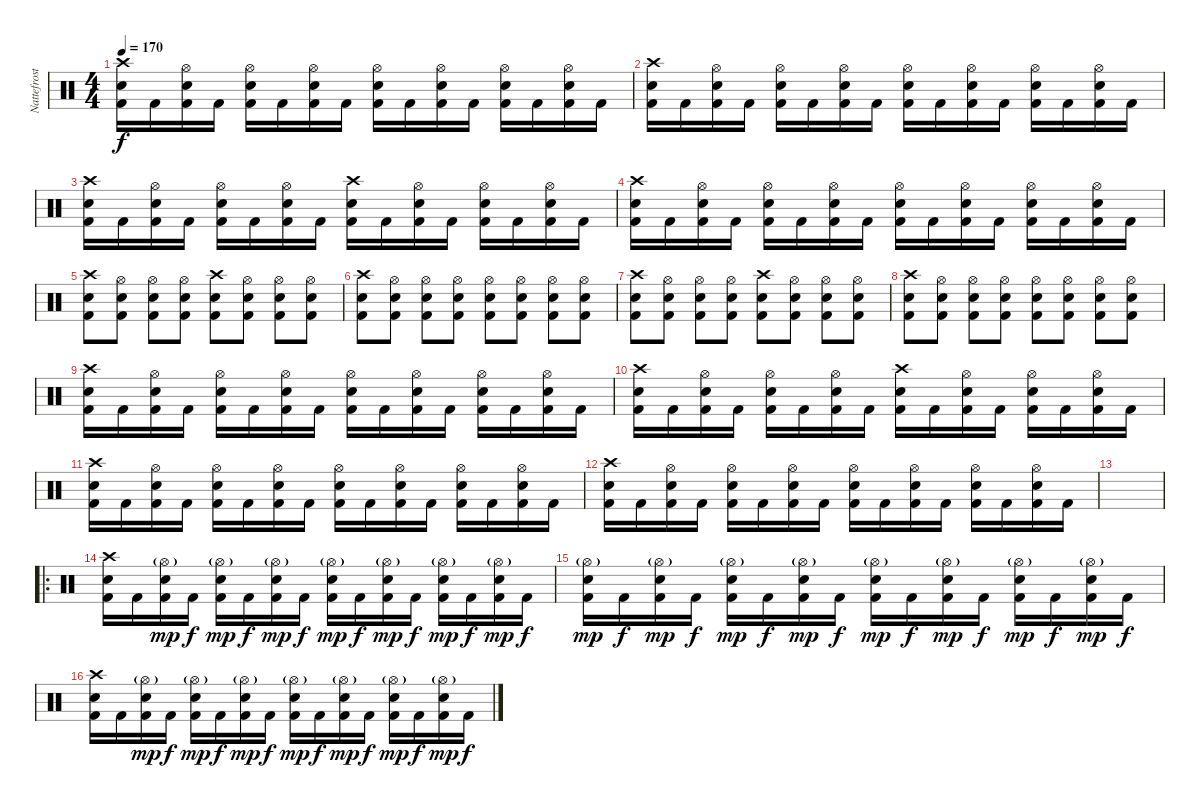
\track ("Nattefrost" "Nattefrost") {instrument percussion}
\staff {score}
\articulation defaults
\ts (4 4)
\tempo 170
\clef neutral
\ks c
("Crash high (hit)" "Snare (hit) 2" "Kick (hit) 2").16{dy f} "Kick (hit) 2".16 ("Hi-Hat (open)" "Snare (hit) 2" "Kick (hit) 2").16 "Kick (hit) 2".16 ("Hi-Hat (open)" "Snare (hit) 2" "Kick (hit) 2").16 "Kick (hit) 2".16 ("Hi-Hat (open)" "Snare (hit) 2" "Kick (hit) 2").16 "Kick (hit) 2".16 ("Hi-Hat (open)" "Snare (hit) 2" "Kick (hit) 2").16 "Kick (hit) 2".16 ("Hi-Hat (open)" "Snare (hit) 2" "Kick (hit) 2").16 "Kick (hit) 2".16 ("Hi-Hat (open)" "Snare (hit) 2" "Kick (hit) 2").16 "Kick (hit) 2".16 ("Hi-Hat (open)" "Snare (hit) 2" "Kick (hit) 2").16 "Kick (hit) 2".16 |
("Crash high (hit)" "Snare (hit) 2" "Kick (hit) 2").16 "Kick (hit) 2".16 ("Hi-Hat (open)" "Snare (hit) 2" "Kick (hit) 2").16 "Kick (hit) 2".16 ("Hi-Hat (open)" "Snare (hit) 2" "Kick (hit) 2").16 "Kick (hit) 2".16 ("Hi-Hat (open)" "Snare (hit) 2" "Kick (hit) 2").16 "Kick (hit) 2".16 ("Hi-Hat (open)" "Snare (hit) 2" "Kick (hit) 2").16 "Kick (hit) 2".16 ("Hi-Hat (open)" "Snare (hit) 2" "Kick (hit) 2").16 "Kick (hit) 2".16 ("Hi-Hat (open)" "Snare (hit) 2" "Kick (hit) 2").16 "Kick (hit) 2".16 ("Hi-Hat (open)" "Snare (hit) 2" "Kick (hit) 2").16 "Kick (hit) 2".16 |
("Crash high (hit)" "Snare (hit) 2" "Kick (hit) 2").16 "Kick (hit) 2".16 ("Hi-Hat (open)" "Snare (hit) 2" "Kick (hit) 2").16 "Kick (hit) 2".16 ("Hi-Hat (open)" "Snare (hit) 2" "Kick (hit) 2").16 "Kick (hit) 2".16 ("Hi-Hat (open)" "Snare (hit) 2" "Kick (hit) 2").16 "Kick (hit) 2".16 ("Crash high (hit)" "Snare (hit) 2" "Kick (hit) 2").16 "Kick (hit) 2".16 ("Hi-Hat (open)" "Snare (hit) 2" "Kick (hit) 2").16 "Kick (hit) 2".16 ("Hi-Hat (open)" "Snare (hit) 2" "Kick (hit) 2").16 "Kick (hit) 2".16 ("Hi-Hat (open)" "Snare (hit) 2" "Kick (hit) 2").16 "Kick (hit) 2".16 |
("Crash high (hit)" "Snare (hit) 2" "Kick (hit) 2").16 "Kick (hit) 2".16 ("Hi-Hat (open)" "Snare (hit) 2" "Kick (hit) 2").16 "Kick (hit) 2".16 ("Hi-Hat (open)" "Snare (hit) 2" "Kick (hit) 2").16 "Kick (hit) 2".16 ("Hi-Hat (open)" "Snare (hit) 2" "Kick (hit) 2").16 "Kick (hit) 2".16 ("Hi-Hat (open)" "Snare (hit) 2" "Kick (hit) 2").16 "Kick (hit) 2".16 ("Hi-Hat (open)" "Snare (hit) 2" "Kick (hit) 2").16 "Kick (hit) 2".16 ("Hi-Hat (open)" "Snare (hit) 2" "Kick (hit) 2").16 "Kick (hit) 2".16 ("Hi-Hat (open)" "Snare (hit) 2" "Kick (hit) 2").16 "Kick (hit) 2".16 |
("Crash high (hit)" "Snare (hit) 2" "Kick (hit) 2").8 ("Hi-Hat (open)" "Snare (hit) 2" "Kick (hit) 2").8 ("Hi-Hat (open)" "Snare (hit) 2" "Kick (hit) 2").8 ("Hi-Hat (open)" "Snare (hit) 2" "Kick (hit) 2").8 ("Crash high (hit)" "Snare (hit) 2" "Kick (hit) 2").8 ("Hi-Hat (open)" "Snare (hit) 2" "Kick (hit) 2").8 ("Hi-Hat (open)" "Snare (hit) 2" "Kick (hit) 2").8 ("Hi-Hat (open)" "Snare (hit) 2" "Kick (hit) 2").8 |
("Crash high (hit)" "Snare (hit) 2" "Kick (hit) 2").8 ("Hi-Hat (open)" "Snare (hit) 2" "Kick (hit) 2").8 ("Hi-Hat (open)" "Snare (hit) 2" "Kick (hit) 2").8 ("Hi-Hat (open)" "Snare (hit) 2" "Kick (hit) 2").8 ("Hi-Hat (open)" "Snare (hit) 2" "Kick (hit) 2").8 ("Hi-Hat (open)" "Snare (hit) 2" "Kick (hit) 2").8 ("Hi-Hat (open)" "Snare (hit) 2" "Kick (hit) 2").8 ("Hi-Hat (open)" "Snare (hit) 2" "Kick (hit) 2").8 |
("Crash high (hit)" "Snare (hit) 2" "Kick (hit) 2").8 ("Hi-Hat (open)" "Snare (hit) 2" "Kick (hit) 2").8 ("Hi-Hat (open)" "Snare (hit) 2" "Kick (hit) 2").8 ("Hi-Hat (open)" "Snare (hit) 2" "Kick (hit) 2").8 ("Crash high (hit)" "Snare (hit) 2" "Kick (hit) 2").8 ("Hi-Hat (open)" "Snare (hit) 2" "Kick (hit) 2").8 ("Hi-Hat (open)" "Snare (hit) 2" "Kick (hit) 2").8 ("Hi-Hat (open)" "Snare (hit) 2" "Kick (hit) 2").8 |
("Crash high (hit)" "Snare (hit) 2" "Kick (hit) 2").8 ("Hi-Hat (open)" "Snare (hit) 2" "Kick (hit) 2").8 ("Hi-Hat (open)" "Snare (hit) 2" "Kick (hit) 2").8 ("Hi-Hat (open)" "Snare (hit) 2" "Kick (hit) 2").8 ("Hi-Hat (open)" "Snare (hit) 2" "Kick (hit) 2").8 ("Hi-Hat (open)" "Snare (hit) 2" "Kick (hit) 2").8 ("Hi-Hat (open)" "Snare (hit) 2" "Kick (hit) 2").8 ("Hi-Hat (open)" "Snare (hit) 2" "Kick (hit) 2").8 |
("Crash high (hit)" "Snare (hit) 2" "Kick (hit) 2").16 "Kick (hit) 2".16 ("Hi-Hat (open)" "Snare (hit) 2" "Kick (hit) 2").16 "Kick (hit) 2".16 ("Hi-Hat (open)" "Snare (hit) 2" "Kick (hit) 2").16 "Kick (hit) 2".16 ("Hi-Hat (open)" "Snare (hit) 2" "Kick (hit) 2").16 "Kick (hit) 2".16 ("Hi-Hat (open)" "Snare (hit) 2" "Kick (hit) 2").16 "Kick (hit) 2".16 ("Hi-Hat (open)" "Snare (hit) 2" "Kick (hit) 2").16 "Kick (hit) 2".16 ("Hi-Hat (open)" "Snare (hit) 2" "Kick (hit) 2").16 "Kick (hit) 2".16 ("Hi-Hat (open)" "Snare (hit) 2" "Kick (hit) 2").16 "Kick (hit) 2".16 |
("Crash high (hit)" "Snare (hit) 2" "Kick (hit) 2").16 "Kick (hit) 2".16 ("Hi-Hat (open)" "Snare (hit) 2" "Kick (hit) 2").16 "Kick (hit) 2".16 ("Hi-Hat (open)" "Snare (hit) 2" "Kick (hit) 2").16 "Kick (hit) 2".16 ("Hi-Hat (open)" "Snare (hit) 2" "Kick (hit) 2").16 "Kick (hit) 2".16 ("Crash high (hit)" "Snare (hit) 2" "Kick (hit) 2").16 "Kick (hit) 2".16 ("Hi-Hat (open)" "Snare (hit) 2" "Kick (hit) 2").16 "Kick (hit) 2".16 ("Hi-Hat (open)" "Snare (hit) 2" "Kick (hit) 2").16 "Kick (hit) 2".16 ("Hi-Hat (open)" "Snare (hit) 2" "Kick (hit) 2").16 "Kick (hit) 2".16 |
("Crash high (hit)" "Snare (hit) 2" "Kick (hit) 2").16 "Kick (hit) 2".16 ("Hi-Hat (open)" "Snare (hit) 2" "Kick (hit) 2").16 "Kick (hit) 2".16 ("Hi-Hat (open)" "Snare (hit) 2" "Kick (hit) 2").16 "Kick (hit) 2".16 ("Hi-Hat (open)" "Snare (hit) 2" "Kick (hit) 2").16 "Kick (hit) 2".16 ("Hi-Hat (open)" "Snare (hit) 2" "Kick (hit) 2").16 "Kick (hit) 2".16 ("Hi-Hat (open)" "Snare (hit) 2" "Kick (hit) 2").16 "Kick (hit) 2".16 ("Hi-Hat (open)" "Snare (hit) 2" "Kick (hit) 2").16 "Kick (hit) 2".16 ("Hi-Hat (open)" "Snare (hit) 2" "Kick (hit) 2").16 "Kick (hit) 2".16 |
("Crash high (hit)" "Snare (hit) 2" "Kick (hit) 2").16 "Kick (hit) 2".16 ("Hi-Hat (open)" "Snare (hit) 2" "Kick (hit) 2").16 "Kick (hit) 2".16 ("Hi-Hat (open)" "Snare (hit) 2" "Kick (hit) 2").16 "Kick (hit) 2".16 ("Hi-Hat (open)" "Snare (hit) 2" "Kick (hit) 2").16 "Kick (hit) 2".16 ("Hi-Hat (open)" "Snare (hit) 2" "Kick (hit) 2").16 "Kick (hit) 2".16 ("Hi-Hat (open)" "Snare (hit) 2" "Kick (hit) 2").16 "Kick (hit) 2".16 ("Hi-Hat (open)" "Snare (hit) 2" "Kick (hit) 2").16 "Kick (hit) 2".16 ("Hi-Hat (open)" "Snare (hit) 2" "Kick (hit) 2").16 "Kick (hit) 2".16 |
|
\ro
("Crash high (hit)" "Snare (hit) 2" "Kick (hit) 2").16 "Kick (hit) 2".16 ("Hi-Hat (open)"{g} "Snare (hit) 2" "Kick (hit) 2").16{dy mp} "Kick (hit) 2".16{dy f} ("Hi-Hat (open)"{g} "Snare (hit) 2" "Kick (hit) 2").16{dy mp} "Kick (hit) 2".16{dy f} ("Hi-Hat (open)"{g} "Snare (hit) 2" "Kick (hit) 2").16{dy mp} "Kick (hit) 2".16{dy f} ("Hi-Hat (open)"{g} "Snare (hit) 2" "Kick (hit) 2").16{dy mp} "Kick (hit) 2".16{dy f} ("Hi-Hat (open)"{g} "Snare (hit) 2" "Kick (hit) 2").16{dy mp} "Kick (hit) 2".16{dy f} ("Hi-Hat (open)"{g} "Snare (hit) 2" "Kick (hit) 2").16{dy mp} "Kick (hit) 2".16{dy f} ("Hi-Hat (open)"{g} "Snare (hit) 2" "Kick (hit) 2").16{dy mp} "Kick (hit) 2".16{dy f} |
("Hi-Hat (open)"{g} "Snare (hit) 2" "Kick (hit) 2").16{dy mp} "Kick (hit) 2".16{dy f} ("Hi-Hat (open)"{g} "Snare (hit) 2" "Kick (hit) 2").16{dy mp} "Kick (hit) 2".16{dy f} ("Hi-Hat (open)"{g} "Snare (hit) 2" "Kick (hit) 2").16{dy mp} "Kick (hit) 2".16{dy f} ("Hi-Hat (open)"{g} "Snare (hit) 2" "Kick (hit) 2").16{dy mp} "Kick (hit) 2".16{dy f} ("Hi-Hat (open)"{g} "Snare (hit) 2" "Kick (hit) 2").16{dy mp} "Kick (hit) 2".16{dy f} ("Hi-Hat (open)"{g} "Snare (hit) 2" "Kick (hit) 2").16{dy mp} "Kick (hit) 2".16{dy f} ("Hi-Hat (open)"{g} "Snare (hit) 2" "Kick (hit) 2").16{dy mp} "Kick (hit) 2".16{dy f} ("Hi-Hat (open)"{g} "Snare (hit) 2" "Kick (hit) 2").16{dy mp} "Kick (hit) 2".16{dy f} |
("Crash high (hit)" "Snare (hit) 2" "Kick (hit) 2").16 "Kick (hit) 2".16 ("Hi-Hat (open)"{g} "Snare (hit) 2" "Kick (hit) 2").16{dy mp} "Kick (hit) 2".16{dy f} ("Hi-Hat (open)"{g} "Snare (hit) 2" "Kick (hit) 2").16{dy mp} "Kick (hit) 2".16{dy f} ("Hi-Hat (open)"{g} "Snare (hit) 2" "Kick (hit) 2").16{dy mp} "Kick (hit) 2".16{dy f} ("Hi-Hat (open)"{g} "Snare (hit) 2" "Kick (hit) 2").16{dy mp} "Kick (hit) 2".16{dy f} ("Hi-Hat (open)"{g} "Snare (hit) 2" "Kick (hit) 2").16{dy mp} "Kick (hit) 2".16{dy f} ("Hi-Hat (open)"{g} "Snare (hit) 2" "Kick (hit) 2").16{dy mp} "Kick (hit) 2".16{dy f} ("Hi-Hat (open)"{g} "Snare (hit) 2" "Kick (hit) 2").16{dy mp} "Kick (hit) 2".16{dy f}
